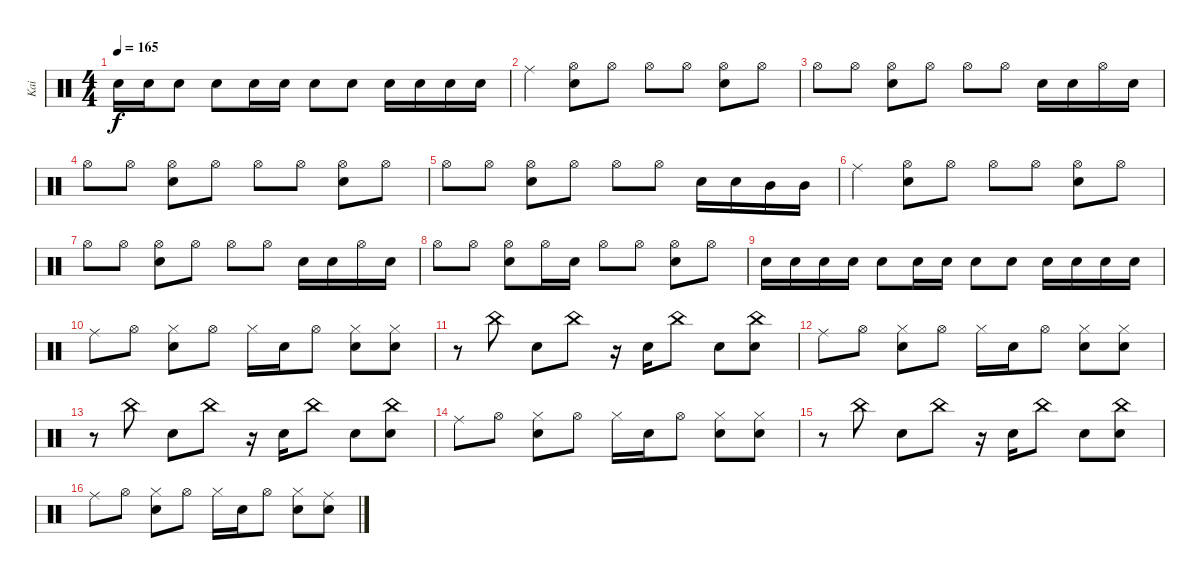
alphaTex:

\track ("Kai" "Kai") {instrument percussion}
\staff {score}
\articulation defaults
\ts (4 4)
\tempo 165
\clef neutral
\ks c "Snare (hit) 2".16{dy f} "Snare (hit) 2".16 "Snare (hit) 2".8 "Snare (hit) 2".8 "Snare (hit) 2".16 "Snare (hit) 2".16 "Snare (hit) 2".8 "Snare (hit) 2".8 "Snare (hit) 2".16 "Snare (hit) 2".16 "Snare (hit) 2".16 "Snare (hit) 2".16
|
"Ride (middle)".4 ("Hi-Hat (open)" "Snare (hit) 2").8 "Hi-Hat (open)".8 "Hi-Hat (open)".8 "Hi-Hat (open)".8 ("Hi-Hat (open)" "Snare (hit) 2").8 "Hi-Hat (open)".8 |
"Hi-Hat (open)".8 "Hi-Hat (open)".8 ("Hi-Hat (open)" "Snare (hit) 2").8 "Hi-Hat (open)".8 "Hi-Hat (open)".8 "Hi-Hat (open)".8 "Snare (hit) 2".16 "Snare (hit) 2".16 "Hi-Hat (open)".16 "Snare (hit) 2".16 |
"Hi-Hat (open)".8 "Hi-Hat (open)".8 ("Hi-Hat (open)" "Snare (hit) 2").8 "Hi-Hat (open)".8 "Hi-Hat (open)".8 "Hi-Hat (open)".8 ("Hi-Hat (open)" "Snare (hit) 2").8 "Hi-Hat (open)".8 |
"Hi-Hat (open)".8 "Hi-Hat (open)".8 ("Hi-Hat (open)" "Snare (hit) 2").8 "Hi-Hat (open)".8 "Hi-Hat (open)".8 "Hi-Hat (open)".8 "Snare (hit) 2".16 "Snare (hit) 2".16 "Mid Tom (hit)".16 "Mid Tom (hit)".16 |
"Ride (middle)".4 ("Hi-Hat (open)" "Snare (hit) 2").8 "Hi-Hat (open)".8 "Hi-Hat (open)".8 "Hi-Hat (open)".8 ("Hi-Hat (open)" "Snare (hit) 2").8 "Hi-Hat (open)".8 |
"Hi-Hat (open)".8 "Hi-Hat (open)".8 ("Hi-Hat (open)" "Snare (hit) 2").8 "Hi-Hat (open)".8 "Hi-Hat (open)".8 "Hi-Hat (open)".8 "Snare (hit) 2".16 "Snare (hit) 2".16 "Hi-Hat (open)".16 "Snare (hit) 2".16 |
"Hi-Hat (open)".8 "Hi-Hat (open)".8 ("Hi-Hat (open)" "Snare (hit) 2").8 "Hi-Hat (open)".16 "Snare (hit) 2".16 "Hi-Hat (open)".8 "Hi-Hat (open)".8 ("Hi-Hat (open)" "Snare (hit) 2").8 "Hi-Hat (open)".8 |
"Snare (hit) 2".16 "Snare (hit) 2".16 "Snare (hit) 2".16 "Snare (hit) 2".16 "Snare (hit) 2".8 "Snare (hit) 2".16 "Snare (hit) 2".16 "Snare (hit) 2".8 "Snare (hit) 2".8 "Snare (hit) 2".16 "Snare (hit) 2".16 "Snare (hit) 2".16 "Snare (hit) 2".16 |
"Ride (middle)".8 "Hi-Hat (open)".8 ("Hi-Hat (closed)" "Snare (hit) 2").8 "Hi-Hat (open)".8 "Hi-Hat (closed)".16 "Snare (hit) 2".16 "Hi-Hat (open)".8 ("Hi-Hat (closed)" "Snare (hit) 2").8 ("Hi-Hat (closed)" "Snare (hit) 2").8 |
r.8 "China (hit)".8 "Snare (hit) 2".8 "China (hit)".8 r.16 "Snare (hit) 2".16 "China (hit)".8 "Snare (hit) 2".8 ("China (hit)" "Snare (hit) 2").8 |
"Ride (middle)".8 "Hi-Hat (open)".8 ("Hi-Hat (closed)" "Snare (hit) 2").8 "Hi-Hat (open)".8 "Hi-Hat (closed)".16 "Snare (hit) 2".16 "Hi-Hat (open)".8 ("Hi-Hat (closed)" "Snare (hit) 2").8 ("Hi-Hat (closed)" "Snare (hit) 2").8 |
r.8 "China (hit)".8 "Snare (hit) 2".8 "China (hit)".8 r.16 "Snare (hit) 2".16 "China (hit)".8 "Snare (hit) 2".8 ("China (hit)" "Snare (hit) 2").8 |
"Ride (middle)".8 "Hi-Hat (open)".8 ("Hi-Hat (closed)" "Snare (hit) 2").8 "Hi-Hat (open)".8 "Hi-Hat (closed)".16 "Snare (hit) 2".16 "Hi-Hat (open)".8 ("Hi-Hat (closed)" "Snare (hit) 2").8 ("Hi-Hat (closed)" "Snare (hit) 2").8 |
r.8 "China (hit)".8 "Snare (hit) 2".8 "China (hit)".8 r.16 "Snare (hit) 2".16 "China (hit)".8 "Snare (hit) 2".8 ("China (hit)" "Snare (hit) 2").8 |
"Ride (middle)".8 "Hi-Hat (open)".8 ("Hi-Hat (closed)" "Snare (hit) 2").8 "Hi-Hat (open)".8 "Hi-Hat (closed)".16 "Snare (hit) 2".16 "Hi-Hat (open)".8 ("Hi-Hat (closed)" "Snare (hit) 2").8 ("Ride (middle)" "Snare (hit) 2").8
